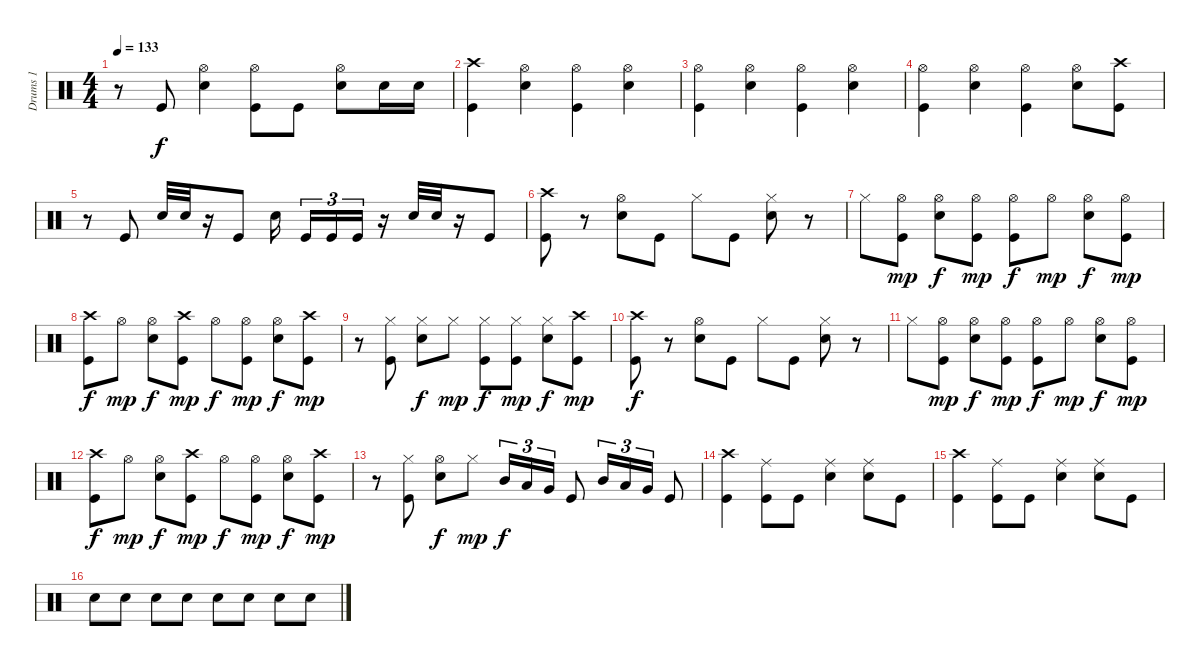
\track ("Drums 1" "Drums 1") {instrument percussion}
\staff {score}
\articulation defaults
\ts (4 4)
\tempo 133
\clef neutral
\ks c
r.8{dy f} "Kick (hit)".8 ("Hi-Hat (open)" "Snare (hit) 2").4 ("Hi-Hat (open)" "Kick (hit)").8 "Kick (hit)".8 ("Hi-Hat (open)" "Snare (hit) 2").8 "Snare (hit) 2".16 "Snare (hit) 2".16 |
("Crash high (hit)" "Kick (hit)").4 ("Hi-Hat (open)" "Snare (hit) 2").4 ("Hi-Hat (open)" "Kick (hit)").4 ("Hi-Hat (open)" "Snare (hit) 2").4 |
("Hi-Hat (open)" "Kick (hit)").4 ("Hi-Hat (open)" "Snare (hit) 2").4 ("Hi-Hat (open)" "Kick (hit)").4 ("Hi-Hat (open)" "Snare (hit) 2").4 |
("Hi-Hat (open)" "Kick (hit)").4 ("Hi-Hat (open)" "Snare (hit) 2").4 ("Hi-Hat (open)" "Kick (hit)").4 ("Hi-Hat (open)" "Snare (hit) 2").8 ("Crash high (hit)" "Kick (hit)").8 |
r.8 "Kick (hit)".8 "Snare (hit) 2".32 "Snare (hit) 2".32 r.16 "Kick (hit)".8 "Snare (hit) 2".16 "Kick (hit)".16{tu (3 2)} "Kick (hit)".16{tu (3 2)} "Kick (hit)".16{tu (3 2)} r.16 "Snare (hit) 2".32 "Snare (hit) 2".32 r.16 "Kick (hit)".8 |
("Crash high (hit)" "Kick (hit)").8 r.8 ("Hi-Hat (open)" "Snare (hit) 2").8 "Kick (hit)".8 "Hi-Hat (closed)".8 "Kick (hit)".8 ("Hi-Hat (closed)" "Snare (hit) 2").8 r.8 |
"Hi-Hat (closed)".8 ("Hi-Hat (open)" "Kick (hit)").8{dy mp} ("Hi-Hat (open)" "Snare (hit) 2").8{dy f} ("Hi-Hat (open)" "Kick (hit)").8{dy mp} ("Hi-Hat (open)" "Kick (hit)").8{dy f} "Hi-Hat (open)".8{dy mp} ("Hi-Hat (open)" "Snare (hit) 2").8{dy f} ("Hi-Hat (open)" "Kick (hit)").8{dy mp} |
("Crash high (hit)" "Kick (hit)").8{dy f} "Hi-Hat (open)".8{dy mp} ("Hi-Hat (open)" "Snare (hit) 2").8{dy f} ("Crash high (hit)" "Kick (hit)").8{dy mp} "Hi-Hat (open)".8{dy f} ("Hi-Hat (open)" "Kick (hit)").8{dy mp} ("Hi-Hat (open)" "Snare (hit) 2").8{dy f} ("Crash high (hit)" "Kick (hit)").8{dy mp} |
r.8 ("Hi-Hat (closed)" "Kick (hit)").8 ("Hi-Hat (closed)" "Snare (hit) 2").8{dy f} "Hi-Hat (closed)".8{dy mp} ("Hi-Hat (closed)" "Kick (hit)").8{dy f} ("Hi-Hat (closed)" "Kick (hit)").8{dy mp} ("Hi-Hat (closed)" "Snare (hit) 2").8{dy f} ("Crash high (hit)" "Kick (hit)").8{dy mp} |
("Crash high (hit)" "Kick (hit)").8{dy f} r.8 ("Hi-Hat (open)" "Snare (hit) 2").8 "Kick (hit)".8 "Hi-Hat (closed)".8 "Kick (hit)".8 ("Hi-Hat (closed)" "Snare (hit) 2").8 r.8 |
"Hi-Hat (closed)".8 ("Hi-Hat (open)" "Kick (hit)").8{dy mp} ("Hi-Hat (open)" "Snare (hit) 2").8{dy f} ("Hi-Hat (open)" "Kick (hit)").8{dy mp} ("Hi-Hat (open)" "Kick (hit)").8{dy f} "Hi-Hat (open)".8{dy mp} ("Hi-Hat (open)" "Snare (hit) 2").8{dy f} ("Hi-Hat (open)" "Kick (hit)").8{dy mp} |
("Crash high (hit)" "Kick (hit)").8{dy f} "Hi-Hat (open)".8{dy mp} ("Hi-Hat (open)" "Snare (hit) 2").8{dy f} ("Crash high (hit)" "Kick (hit)").8{dy mp} "Hi-Hat (open)".8{dy f} ("Hi-Hat (open)" "Kick (hit)").8{dy mp} ("Hi-Hat (open)" "Snare (hit) 2").8{dy f} ("Crash high (hit)" "Kick (hit)").8{dy mp} |
r.8 ("Hi-Hat (closed)" "Kick (hit)").8 ("Hi-Hat (open)" "Snare (hit) 2").8{dy f} "Hi-Hat (closed)".8{dy mp} "Mid Tom (hit)".16{tu (3 2) dy f} "Low Tom (hit)".16{tu (3 2)} "Very Low Tom (hit)".16{tu (3 2)} "Kick (hit)".8 "Mid Tom (hit)".16{tu (3 2)} "Low Tom (hit)".16{tu (3 2)} "Very Low Tom (hit)".16{tu (3 2)} "Kick (hit)".8 |
("Crash high (hit)" "Kick (hit)").4 ("Ride (middle)" "Kick (hit)").8 "Kick (hit)".8 ("Ride (middle)" "Snare (hit) 2").4 ("Ride (middle)" "Snare (hit) 2").8 "Kick (hit)".8 |
("Crash high (hit)" "Kick (hit)").4 ("Ride (middle)" "Kick (hit)").8 "Kick (hit)".8 ("Ride (middle)" "Snare (hit) 2").4 ("Ride (middle)" "Snare (hit) 2").8 "Kick (hit)".8 |
"Snare (hit) 2".8 "Snare (hit) 2".8 "Snare (hit) 2".8 "Snare (hit) 2".8 "Snare (hit) 2".8 "Snare (hit) 2".8 "Snare (hit) 2".8 "Snare (hit) 2".8
